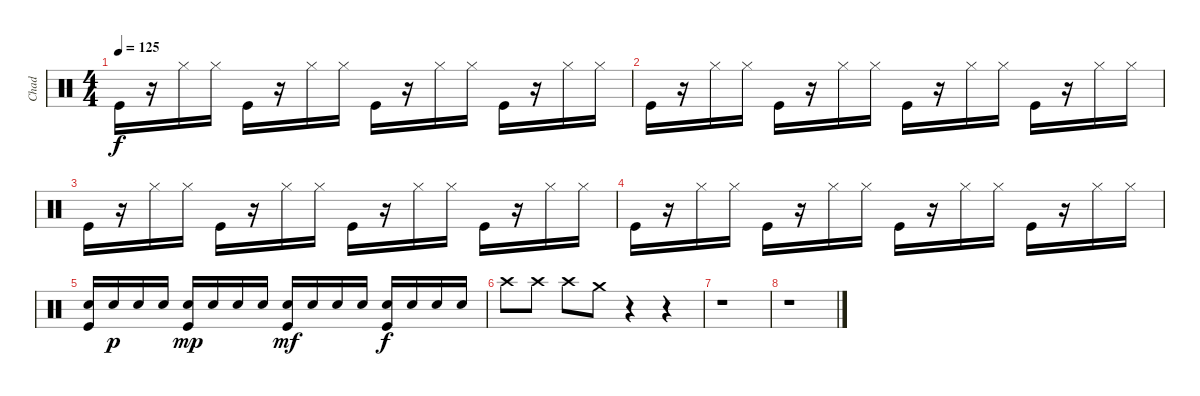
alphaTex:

\track ("Chad" "Chad") {instrument percussion}
\staff {score}
\articulation defaults
\ts (4 4)
\tempo 125
\clef neutral
\ks c "Kick (hit)".16{dy f}
r.16 "Hi-Hat (closed)".16 "Hi-Hat (closed)".16 "Kick (hit)".16 r.16 "Hi-Hat (closed)".16 "Hi-Hat (closed)".16 "Kick (hit)".16 r.16 "Hi-Hat (closed)".16 "Hi-Hat (closed)".16 "Kick (hit)".16 r.16 "Hi-Hat (closed)".16 "Hi-Hat (closed)".16 |
"Kick (hit)".16 r.16 "Hi-Hat (closed)".16 "Hi-Hat (closed)".16 "Kick (hit)".16 r.16 "Hi-Hat (closed)".16 "Hi-Hat (closed)".16 "Kick (hit)".16 r.16 "Hi-Hat (closed)".16 "Hi-Hat (closed)".16 "Kick (hit)".16 r.16 "Hi-Hat (closed)".16 "Hi-Hat (closed)".16 |
"Kick (hit)".16 r.16 "Hi-Hat (closed)".16 "Hi-Hat (closed)".16 "Kick (hit)".16 r.16 "Hi-Hat (closed)".16 "Hi-Hat (closed)".16 "Kick (hit)".16 r.16 "Hi-Hat (closed)".16 "Hi-Hat (closed)".16 "Kick (hit)".16 r.16 "Hi-Hat (closed)".16 "Hi-Hat (closed)".16 |
"Kick (hit)".16 r.16 "Hi-Hat (closed)".16 "Hi-Hat (closed)".16 "Kick (hit)".16 r.16 "Hi-Hat (closed)".16 "Hi-Hat (closed)".16 "Kick (hit)".16 r.16 "Hi-Hat (closed)".16 "Hi-Hat (closed)".16 "Kick (hit)".16 r.16 "Hi-Hat (closed)".16 "Hi-Hat (closed)".16 |
("Snare (hit) 2" "Kick (hit)").16 "Snare (hit) 2".16{dy p} "Snare (hit) 2".16 "Snare (hit) 2".16 ("Snare (hit) 2" "Kick (hit)").16{dy mp} "Snare (hit) 2".16 "Snare (hit) 2".16 "Snare (hit) 2".16 ("Snare (hit) 2" "Kick (hit)").16{dy mf} "Snare (hit) 2".16 "Snare (hit) 2".16 "Snare (hit) 2".16 ("Snare (hit) 2" "Kick (hit)").16{dy f} "Snare (hit) 2".16 "Snare (hit) 2".16 "Snare (hit) 2".16 |
"Crash high (hit)".8 "Crash high (hit)".8 "Crash high (hit)".8 "Crash medium (hit)".8 r.4 r.4 |
r.1 |
r.1
